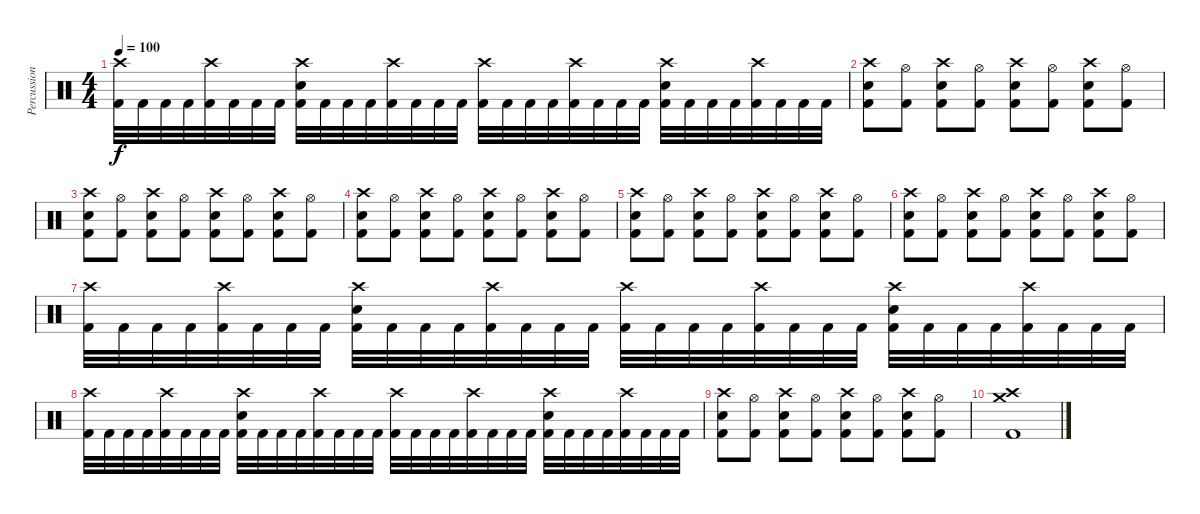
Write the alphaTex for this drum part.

\track ("Percussion" "Percussion") {instrument percussion}
\staff {score}
\articulation defaults
\ts (4 4)
\tempo 100
\clef neutral
\ks c
("Crash high (hit)" "Kick (hit) 2").32{dy f} "Kick (hit) 2".32 "Kick (hit) 2".32 "Kick (hit) 2".32 ("Crash high (hit)" "Kick (hit) 2").32 "Kick (hit) 2".32 "Kick (hit) 2".32 "Kick (hit) 2".32 ("Electric Snare (hit)" "Crash high (hit)" "Kick (hit) 2").32 "Kick (hit) 2".32 "Kick (hit) 2".32 "Kick (hit) 2".32 ("Crash high (hit)" "Kick (hit) 2").32 "Kick (hit) 2".32 "Kick (hit) 2".32 "Kick (hit) 2".32 ("Crash high (hit)" "Kick (hit) 2").32 "Kick (hit) 2".32 "Kick (hit) 2".32 "Kick (hit) 2".32 ("Crash high (hit)" "Kick (hit) 2").32 "Kick (hit) 2".32 "Kick (hit) 2".32 "Kick (hit) 2".32 ("Electric Snare (hit)" "Crash high (hit)" "Kick (hit) 2").32 "Kick (hit) 2".32 "Kick (hit) 2".32 "Kick (hit) 2".32 ("Crash high (hit)" "Kick (hit) 2").32 "Kick (hit) 2".32 "Kick (hit) 2".32 "Kick (hit) 2".32 |
("Crash high (hit)" "Electric Snare (hit)" "Kick (hit) 2").8 ("Hi-Hat (open)" "Kick (hit) 2").8 ("Crash high (hit)" "Electric Snare (hit)" "Kick (hit) 2").8 ("Hi-Hat (open)" "Kick (hit) 2").8 ("Crash high (hit)" "Electric Snare (hit)" "Kick (hit) 2").8 ("Hi-Hat (open)" "Kick (hit) 2").8 ("Crash high (hit)" "Electric Snare (hit)" "Kick (hit) 2").8 ("Hi-Hat (open)" "Kick (hit) 2").8 |
("Crash high (hit)" "Electric Snare (hit)" "Kick (hit) 2").8 ("Hi-Hat (open)" "Kick (hit) 2").8 ("Crash high (hit)" "Electric Snare (hit)" "Kick (hit) 2").8 ("Hi-Hat (open)" "Kick (hit) 2").8 ("Crash high (hit)" "Electric Snare (hit)" "Kick (hit) 2").8 ("Hi-Hat (open)" "Kick (hit) 2").8 ("Crash high (hit)" "Electric Snare (hit)" "Kick (hit) 2").8 ("Hi-Hat (open)" "Kick (hit) 2").8 |
("Crash high (hit)" "Electric Snare (hit)" "Kick (hit) 2").8 ("Hi-Hat (open)" "Kick (hit) 2").8 ("Crash high (hit)" "Electric Snare (hit)" "Kick (hit) 2").8 ("Hi-Hat (open)" "Kick (hit) 2").8 ("Crash high (hit)" "Electric Snare (hit)" "Kick (hit) 2").8 ("Hi-Hat (open)" "Kick (hit) 2").8 ("Crash high (hit)" "Electric Snare (hit)" "Kick (hit) 2").8 ("Hi-Hat (open)" "Kick (hit) 2").8 |
("Crash high (hit)" "Electric Snare (hit)" "Kick (hit) 2").8 ("Hi-Hat (open)" "Kick (hit) 2").8 ("Crash high (hit)" "Electric Snare (hit)" "Kick (hit) 2").8 ("Hi-Hat (open)" "Kick (hit) 2").8 ("Crash high (hit)" "Electric Snare (hit)" "Kick (hit) 2").8 ("Hi-Hat (open)" "Kick (hit) 2").8 ("Crash high (hit)" "Electric Snare (hit)" "Kick (hit) 2").8 ("Hi-Hat (open)" "Kick (hit) 2").8 |
("Crash high (hit)" "Electric Snare (hit)" "Kick (hit) 2").8 ("Hi-Hat (open)" "Kick (hit) 2").8 ("Crash high (hit)" "Electric Snare (hit)" "Kick (hit) 2").8 ("Hi-Hat (open)" "Kick (hit) 2").8 ("Crash high (hit)" "Electric Snare (hit)" "Kick (hit) 2").8 ("Hi-Hat (open)" "Kick (hit) 2").8 ("Crash high (hit)" "Electric Snare (hit)" "Kick (hit) 2").8 ("Hi-Hat (open)" "Kick (hit) 2").8 |
("Crash high (hit)" "Kick (hit) 2").32 "Kick (hit) 2".32 "Kick (hit) 2".32 "Kick (hit) 2".32 ("Crash high (hit)" "Kick (hit) 2").32 "Kick (hit) 2".32 "Kick (hit) 2".32 "Kick (hit) 2".32 ("Electric Snare (hit)" "Crash high (hit)" "Kick (hit) 2").32 "Kick (hit) 2".32 "Kick (hit) 2".32 "Kick (hit) 2".32 ("Crash high (hit)" "Kick (hit) 2").32 "Kick (hit) 2".32 "Kick (hit) 2".32 "Kick (hit) 2".32 ("Crash high (hit)" "Kick (hit) 2").32 "Kick (hit) 2".32 "Kick (hit) 2".32 "Kick (hit) 2".32 ("Crash high (hit)" "Kick (hit) 2").32 "Kick (hit) 2".32 "Kick (hit) 2".32 "Kick (hit) 2".32 ("Electric Snare (hit)" "Crash high (hit)" "Kick (hit) 2").32 "Kick (hit) 2".32 "Kick (hit) 2".32 "Kick (hit) 2".32 ("Crash high (hit)" "Kick (hit) 2").32 "Kick (hit) 2".32 "Kick (hit) 2".32 "Kick (hit) 2".32 |
("Crash high (hit)" "Kick (hit) 2").32 "Kick (hit) 2".32 "Kick (hit) 2".32 "Kick (hit) 2".32 ("Crash high (hit)" "Kick (hit) 2").32 "Kick (hit) 2".32 "Kick (hit) 2".32 "Kick (hit) 2".32 ("Electric Snare (hit)" "Crash high (hit)" "Kick (hit) 2").32 "Kick (hit) 2".32 "Kick (hit) 2".32 "Kick (hit) 2".32 ("Crash high (hit)" "Kick (hit) 2").32 "Kick (hit) 2".32 "Kick (hit) 2".32 "Kick (hit) 2".32 ("Crash high (hit)" "Kick (hit) 2").32 "Kick (hit) 2".32 "Kick (hit) 2".32 "Kick (hit) 2".32 ("Crash high (hit)" "Kick (hit) 2").32 "Kick (hit) 2".32 "Kick (hit) 2".32 "Kick (hit) 2".32 ("Electric Snare (hit)" "Crash high (hit)" "Kick (hit) 2").32 "Kick (hit) 2".32 "Kick (hit) 2".32 "Kick (hit) 2".32 ("Crash high (hit)" "Kick (hit) 2").32 "Kick (hit) 2".32 "Kick (hit) 2".32 "Kick (hit) 2".32 |
("Crash high (hit)" "Electric Snare (hit)" "Kick (hit) 2").8 ("Hi-Hat (open)" "Kick (hit) 2").8 ("Crash high (hit)" "Electric Snare (hit)" "Kick (hit) 2").8 ("Hi-Hat (open)" "Kick (hit) 2").8 ("Crash high (hit)" "Electric Snare (hit)" "Kick (hit) 2").8 ("Hi-Hat (open)" "Kick (hit) 2").8 ("Crash high (hit)" "Electric Snare (hit)" "Kick (hit) 2").8 ("Hi-Hat (open)" "Kick (hit) 2").8 |
("Crash medium (hit)" "Crash high (hit)" "Kick (hit) 2").1
